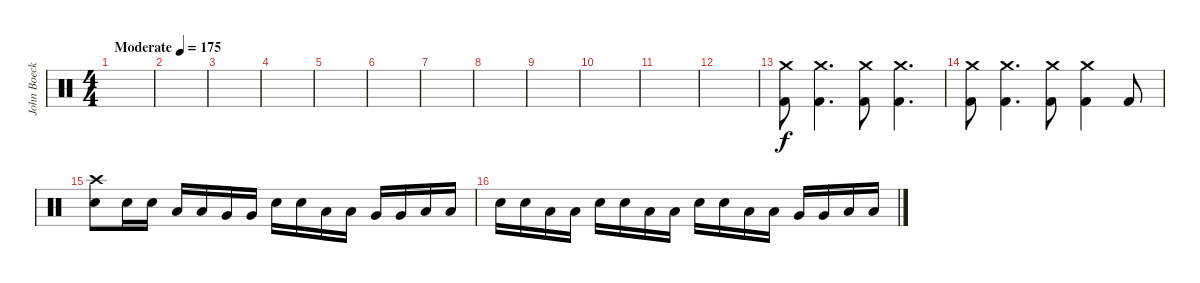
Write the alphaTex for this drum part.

\track ("John Boecklin (Drums)" "John Boeck") {instrument percussion}
\staff {score}
\articulation defaults
\ts (4 4)
\tempo (175 "Moderate")
\clef neutral
\ks c
|
|
|
|
|
|
|
|
|
|
|
|
("Crash medium (hit)" "Kick (hit) 2").8 ("Crash medium (hit)" "Kick (hit) 2").4{d} ("Crash medium (hit)" "Kick (hit) 2").8 ("Crash medium (hit)" "Kick (hit) 2").4{d} |
("Crash medium (hit)" "Kick (hit) 2").8 ("Crash medium (hit)" "Kick (hit) 2").4{d} ("Crash medium (hit)" "Kick (hit) 2").8 ("Crash medium (hit)" "Kick (hit) 2").4 "Kick (hit) 2".8 |
("Crash high (hit)" "Snare (hit) 2").8 "Snare (hit) 2".16 "Snare (hit) 2".16 "Low Tom (hit)".16 "Low Tom (hit)".16 "Very Low Tom (hit)".16 "Very Low Tom (hit)".16 "Snare (hit) 2".16 "Snare (hit) 2".16 "Low Tom (hit)".16 "Low Tom (hit)".16 "Very Low Tom (hit)".16 "Very Low Tom (hit)".16 "Low Floor Tom (hit)".16 "Low Floor Tom (hit)".16 |
"Snare (hit) 2".16 "Snare (hit) 2".16 "Low Tom (hit)".16 "Low Tom (hit)".16 "Snare (hit) 2".16 "Snare (hit) 2".16 "Low Tom (hit)".16 "Low Tom (hit)".16 "Snare (hit) 2".16 "Snare (hit) 2".16 "Low Tom (hit)".16 "Low Tom (hit)".16 "Very Low Tom (hit)".16 "Very Low Tom (hit)".16 "Low Floor Tom (hit)".16 "Low Floor Tom (hit)".16
